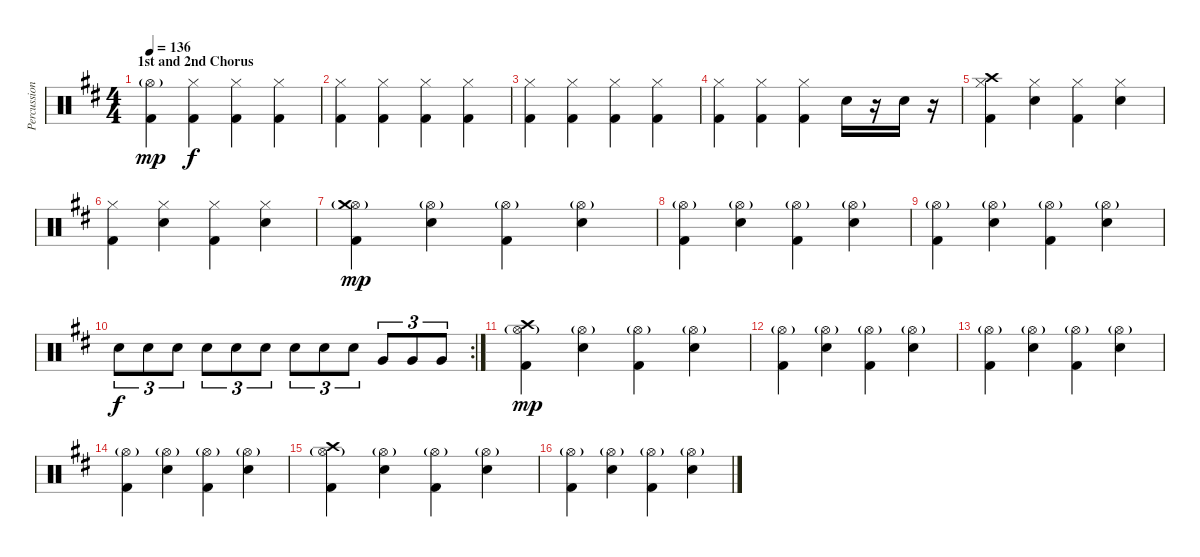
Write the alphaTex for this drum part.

\track ("Percussions" "Percussion") {instrument percussion}
\staff {score}
\articulation defaults
\ts (4 4)
\section ("" "1st and 2nd Chorus")
\tempo 136
\clef neutral
\ks d
("Hi-Hat (open)"{g} "Kick (hit) 2").4{dy mp} ("Hi-Hat (closed)" "Kick (hit) 2").4{dy f} ("Hi-Hat (closed)" "Kick (hit) 2").4 ("Hi-Hat (closed)" "Kick (hit) 2").4 |
("Hi-Hat (closed)" "Kick (hit) 2").4 ("Hi-Hat (closed)" "Kick (hit) 2").4 ("Hi-Hat (closed)" "Kick (hit) 2").4 ("Hi-Hat (closed)" "Kick (hit) 2").4 |
("Hi-Hat (closed)" "Kick (hit) 2").4 ("Hi-Hat (closed)" "Kick (hit) 2").4 ("Hi-Hat (closed)" "Kick (hit) 2").4 ("Hi-Hat (closed)" "Kick (hit) 2").4 |
("Hi-Hat (closed)" "Kick (hit) 2").4 ("Hi-Hat (closed)" "Kick (hit) 2").4 ("Hi-Hat (closed)" "Kick (hit) 2").4 "Snare (hit) 2".16 r.16 "Snare (hit) 2".16 r.16 |
("Hi-Hat (closed)" "Kick (hit) 2" "Crash high (hit)").4 ("Hi-Hat (closed)" "Snare (hit) 2").4 ("Hi-Hat (closed)" "Kick (hit) 2").4 ("Hi-Hat (closed)" "Snare (hit) 2").4 |
("Hi-Hat (closed)" "Kick (hit) 2").4 ("Hi-Hat (closed)" "Snare (hit) 2").4 ("Hi-Hat (closed)" "Kick (hit) 2").4 ("Hi-Hat (closed)" "Snare (hit) 2").4 |
("Hi-Hat (open)"{g} "Kick (hit) 2" "Crash medium (hit)").4{dy mp} ("Hi-Hat (open)"{g} "Snare (hit) 2").4 ("Hi-Hat (open)"{g} "Kick (hit) 2").4 ("Hi-Hat (open)"{g} "Snare (hit) 2").4 |
("Hi-Hat (open)"{g} "Kick (hit) 2").4 ("Hi-Hat (open)"{g} "Snare (hit) 2").4 ("Hi-Hat (open)"{g} "Kick (hit) 2").4 ("Hi-Hat (open)"{g} "Snare (hit) 2").4 |
("Hi-Hat (open)"{g} "Kick (hit) 2").4 ("Hi-Hat (open)"{g} "Snare (hit) 2").4 ("Hi-Hat (open)"{g} "Kick (hit) 2").4 ("Hi-Hat (open)"{g} "Snare (hit) 2").4 |
\rc 2 "Snare (hit) 2".8{tu (3 2) dy f} "Snare (hit) 2".8{tu (3 2)} "Snare (hit) 2".8{tu (3 2)} "Snare (hit) 2".8{tu (3 2)} "Snare (hit) 2".8{tu (3 2)} "Snare (hit) 2".8{tu (3 2)} "Snare (hit) 2".8{tu (3 2)} "Snare (hit) 2".8{tu (3 2)} "Snare (hit) 2".8{tu (3 2)} "Very Low Tom (hit)".8{tu (3 2)} "Very Low Tom (hit)".8{tu (3 2)} "Very Low Tom (hit)".8{tu (3 2)}
|
("Hi-Hat (open)"{g} "Kick (hit) 2" "Crash high (hit)").4{dy mp} ("Hi-Hat (open)"{g} "Snare (hit) 2").4 ("Hi-Hat (open)"{g} "Kick (hit) 2").4 ("Hi-Hat (open)"{g} "Snare (hit) 2").4 |
("Hi-Hat (open)"{g} "Kick (hit) 2").4 ("Hi-Hat (open)"{g} "Snare (hit) 2").4 ("Hi-Hat (open)"{g} "Kick (hit) 2").4 ("Hi-Hat (open)"{g} "Snare (hit) 2").4 |
("Hi-Hat (open)"{g} "Kick (hit) 2").4 ("Hi-Hat (open)"{g} "Snare (hit) 2").4 ("Hi-Hat (open)"{g} "Kick (hit) 2").4 ("Hi-Hat (open)"{g} "Snare (hit) 2").4 |
("Hi-Hat (open)"{g} "Kick (hit) 2").4 ("Hi-Hat (open)"{g} "Snare (hit) 2").4 ("Hi-Hat (open)"{g} "Kick (hit) 2").4 ("Hi-Hat (open)"{g} "Snare (hit) 2").4 |
("Hi-Hat (open)"{g} "Kick (hit) 2" "Crash high (hit)").4 ("Hi-Hat (open)"{g} "Snare (hit) 2").4 ("Hi-Hat (open)"{g} "Kick (hit) 2").4 ("Hi-Hat (open)"{g} "Snare (hit) 2").4 |
("Hi-Hat (open)"{g} "Kick (hit) 2").4 ("Hi-Hat (open)"{g} "Snare (hit) 2").4 ("Hi-Hat (open)"{g} "Kick (hit) 2").4 ("Hi-Hat (open)"{g} "Snare (hit) 2").4
